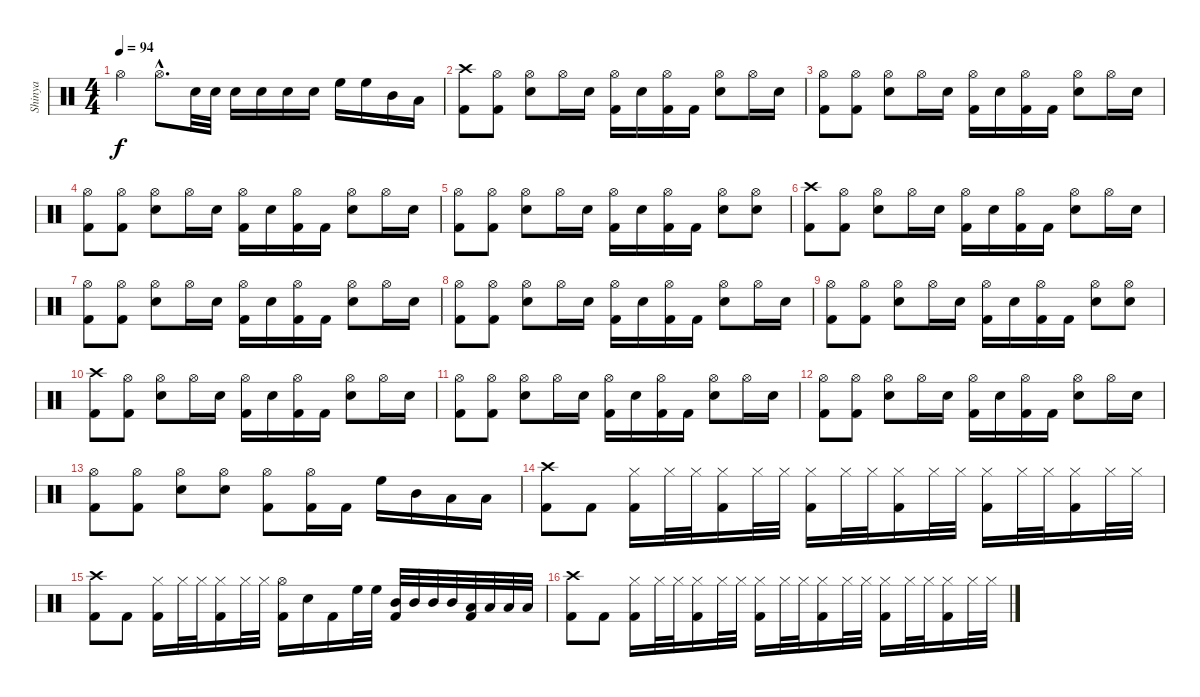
\track ("Shinya" "Shinya") {instrument percussion}
\staff {score}
\articulation defaults
\ts (4 4)
\tempo 94
\clef neutral
\ks c "Hi-Hat (open)".4{dy f} "Hi-Hat (open)"{hac}.8{d} "Snare (hit) 2".32 "Snare (hit) 2".32 "Snare (hit) 2".16 "Snare (hit) 2".16 "Snare (hit) 2".16 "Snare (hit) 2".16 "High Floor Tom (hit)".16 "High Floor Tom (hit)".16 "Mid Tom (hit)".16 "Low Tom (hit)".16
|
("Kick (hit) 2" "Crash high (hit)").8 ("Kick (hit) 2" "Hi-Hat (open)").8 ("Snare (hit) 2" "Hi-Hat (open)").8 "Hi-Hat (open)".16 "Snare (hit) 2".16 ("Hi-Hat (open)" "Kick (hit) 2").16 "Snare (hit) 2".16 ("Hi-Hat (open)" "Kick (hit) 2").16 "Kick (hit) 2".16 ("Hi-Hat (open)" "Snare (hit) 2").8 "Hi-Hat (open)".16 "Snare (hit) 2".16 |
("Kick (hit) 2" "Hi-Hat (open)").8 ("Kick (hit) 2" "Hi-Hat (open)").8 ("Snare (hit) 2" "Hi-Hat (open)").8 "Hi-Hat (open)".16 "Snare (hit) 2".16 ("Hi-Hat (open)" "Kick (hit) 2").16 "Snare (hit) 2".16 ("Hi-Hat (open)" "Kick (hit) 2").16 "Kick (hit) 2".16 ("Hi-Hat (open)" "Snare (hit) 2").8 "Hi-Hat (open)".16 "Snare (hit) 2".16 |
("Kick (hit) 2" "Hi-Hat (open)").8 ("Kick (hit) 2" "Hi-Hat (open)").8 ("Snare (hit) 2" "Hi-Hat (open)").8 "Hi-Hat (open)".16 "Snare (hit) 2".16 ("Hi-Hat (open)" "Kick (hit) 2").16 "Snare (hit) 2".16 ("Hi-Hat (open)" "Kick (hit) 2").16 "Kick (hit) 2".16 ("Hi-Hat (open)" "Snare (hit) 2").8 "Hi-Hat (open)".16 "Snare (hit) 2".16 |
("Kick (hit) 2" "Hi-Hat (open)").8 ("Kick (hit) 2" "Hi-Hat (open)").8 ("Snare (hit) 2" "Hi-Hat (open)").8 "Hi-Hat (open)".16 "Snare (hit) 2".16 ("Hi-Hat (open)" "Kick (hit) 2").16 "Snare (hit) 2".16 ("Hi-Hat (open)" "Kick (hit) 2").16 "Kick (hit) 2".16 ("Hi-Hat (open)" "Snare (hit) 2").8 ("Hi-Hat (open)" "Snare (hit) 2").8 |
("Kick (hit) 2" "Crash high (hit)").8 ("Kick (hit) 2" "Hi-Hat (open)").8 ("Snare (hit) 2" "Hi-Hat (open)").8 "Hi-Hat (open)".16 "Snare (hit) 2".16 ("Hi-Hat (open)" "Kick (hit) 2").16 "Snare (hit) 2".16 ("Hi-Hat (open)" "Kick (hit) 2").16 "Kick (hit) 2".16 ("Hi-Hat (open)" "Snare (hit) 2").8 "Hi-Hat (open)".16 "Snare (hit) 2".16 |
("Kick (hit) 2" "Hi-Hat (open)").8 ("Kick (hit) 2" "Hi-Hat (open)").8 ("Snare (hit) 2" "Hi-Hat (open)").8 "Hi-Hat (open)".16 "Snare (hit) 2".16 ("Hi-Hat (open)" "Kick (hit) 2").16 "Snare (hit) 2".16 ("Hi-Hat (open)" "Kick (hit) 2").16 "Kick (hit) 2".16 ("Hi-Hat (open)" "Snare (hit) 2").8 "Hi-Hat (open)".16 "Snare (hit) 2".16 |
("Kick (hit) 2" "Hi-Hat (open)").8 ("Kick (hit) 2" "Hi-Hat (open)").8 ("Snare (hit) 2" "Hi-Hat (open)").8 "Hi-Hat (open)".16 "Snare (hit) 2".16 ("Hi-Hat (open)" "Kick (hit) 2").16 "Snare (hit) 2".16 ("Hi-Hat (open)" "Kick (hit) 2").16 "Kick (hit) 2".16 ("Hi-Hat (open)" "Snare (hit) 2").8 "Hi-Hat (open)".16 "Snare (hit) 2".16 |
("Kick (hit) 2" "Hi-Hat (open)").8 ("Kick (hit) 2" "Hi-Hat (open)").8 ("Snare (hit) 2" "Hi-Hat (open)").8 "Hi-Hat (open)".16 "Snare (hit) 2".16 ("Hi-Hat (open)" "Kick (hit) 2").16 "Snare (hit) 2".16 ("Hi-Hat (open)" "Kick (hit) 2").16 "Kick (hit) 2".16 ("Hi-Hat (open)" "Snare (hit) 2").8 ("Hi-Hat (open)" "Snare (hit) 2").8 |
("Kick (hit) 2" "Crash high (hit)").8 ("Kick (hit) 2" "Hi-Hat (open)").8 ("Snare (hit) 2" "Hi-Hat (open)").8 "Hi-Hat (open)".16 "Snare (hit) 2".16 ("Hi-Hat (open)" "Kick (hit) 2").16 "Snare (hit) 2".16 ("Hi-Hat (open)" "Kick (hit) 2").16 "Kick (hit) 2".16 ("Hi-Hat (open)" "Snare (hit) 2").8 "Hi-Hat (open)".16 "Snare (hit) 2".16 |
("Kick (hit) 2" "Hi-Hat (open)").8 ("Kick (hit) 2" "Hi-Hat (open)").8 ("Snare (hit) 2" "Hi-Hat (open)").8 "Hi-Hat (open)".16 "Snare (hit) 2".16 ("Hi-Hat (open)" "Kick (hit) 2").16 "Snare (hit) 2".16 ("Hi-Hat (open)" "Kick (hit) 2").16 "Kick (hit) 2".16 ("Hi-Hat (open)" "Snare (hit) 2").8 "Hi-Hat (open)".16 "Snare (hit) 2".16 |
("Kick (hit) 2" "Hi-Hat (open)").8 ("Kick (hit) 2" "Hi-Hat (open)").8 ("Snare (hit) 2" "Hi-Hat (open)").8 "Hi-Hat (open)".16 "Snare (hit) 2".16 ("Hi-Hat (open)" "Kick (hit) 2").16 "Snare (hit) 2".16 ("Hi-Hat (open)" "Kick (hit) 2").16 "Kick (hit) 2".16 ("Hi-Hat (open)" "Snare (hit) 2").8 "Hi-Hat (open)".16 "Snare (hit) 2".16 |
("Kick (hit) 2" "Hi-Hat (open)").8 ("Kick (hit) 2" "Hi-Hat (open)").8 ("Snare (hit) 2" "Hi-Hat (open)").8 ("Hi-Hat (open)" "Snare (hit) 2").8 ("Kick (hit) 2" "Hi-Hat (open)").8 ("Hi-Hat (open)" "Kick (hit) 2").16 "Kick (hit) 2".16 "High Floor Tom (hit)".16 "Mid Tom (hit)".16 "Low Tom (hit)".16 "Low Tom (hit)".16 |
("Crash high (hit)" "Kick (hit) 2").8 "Kick (hit) 2".8 ("Hi-Hat (closed)" "Kick (hit) 2").16 "Hi-Hat (closed)".32 "Hi-Hat (closed)".32 ("Hi-Hat (closed)" "Kick (hit) 2").16 "Hi-Hat (closed)".32 "Hi-Hat (closed)".32 ("Hi-Hat (closed)" "Kick (hit) 2").16 "Hi-Hat (closed)".32 "Hi-Hat (closed)".32 ("Hi-Hat (closed)" "Kick (hit) 2").16 "Hi-Hat (closed)".32 "Hi-Hat (closed)".32 ("Hi-Hat (closed)" "Kick (hit) 2").16 "Hi-Hat (closed)".32 "Hi-Hat (closed)".32 ("Hi-Hat (closed)" "Kick (hit) 2").16 "Hi-Hat (closed)".32 "Hi-Hat (closed)".32 |
("Crash high (hit)" "Kick (hit) 2").8 "Kick (hit) 2".8 ("Hi-Hat (closed)" "Kick (hit) 2").16 "Hi-Hat (closed)".32 "Hi-Hat (closed)".32 ("Hi-Hat (closed)" "Kick (hit) 2").16 "Hi-Hat (closed)".32 "Hi-Hat (closed)".32 ("Hi-Hat (open)" "Kick (hit) 2").16 "Snare (hit) 2".16 "Kick (hit) 2".16 "High Floor Tom (hit)".32 "High Floor Tom (hit)".32 ("Mid Tom (hit)" "Kick (hit) 2").32 "Mid Tom (hit)".32 "Mid Tom (hit)".32 "Mid Tom (hit)".32 ("Low Tom (hit)" "Kick (hit) 2").32 "Low Tom (hit)".32 "Low Tom (hit)".32 "Low Tom (hit)".32 |
("Crash high (hit)" "Kick (hit) 2").8 "Kick (hit) 2".8 ("Hi-Hat (closed)" "Kick (hit) 2").16 "Hi-Hat (closed)".32 "Hi-Hat (closed)".32 ("Hi-Hat (closed)" "Kick (hit) 2").16 "Hi-Hat (closed)".32 "Hi-Hat (closed)".32 ("Hi-Hat (closed)" "Kick (hit) 2").16 "Hi-Hat (closed)".32 "Hi-Hat (closed)".32 ("Hi-Hat (closed)" "Kick (hit) 2").16 "Hi-Hat (closed)".32 "Hi-Hat (closed)".32 ("Hi-Hat (closed)" "Kick (hit) 2").16 "Hi-Hat (closed)".32 "Hi-Hat (closed)".32 ("Hi-Hat (closed)" "Kick (hit) 2").16 "Hi-Hat (closed)".32 "Hi-Hat (closed)".32
